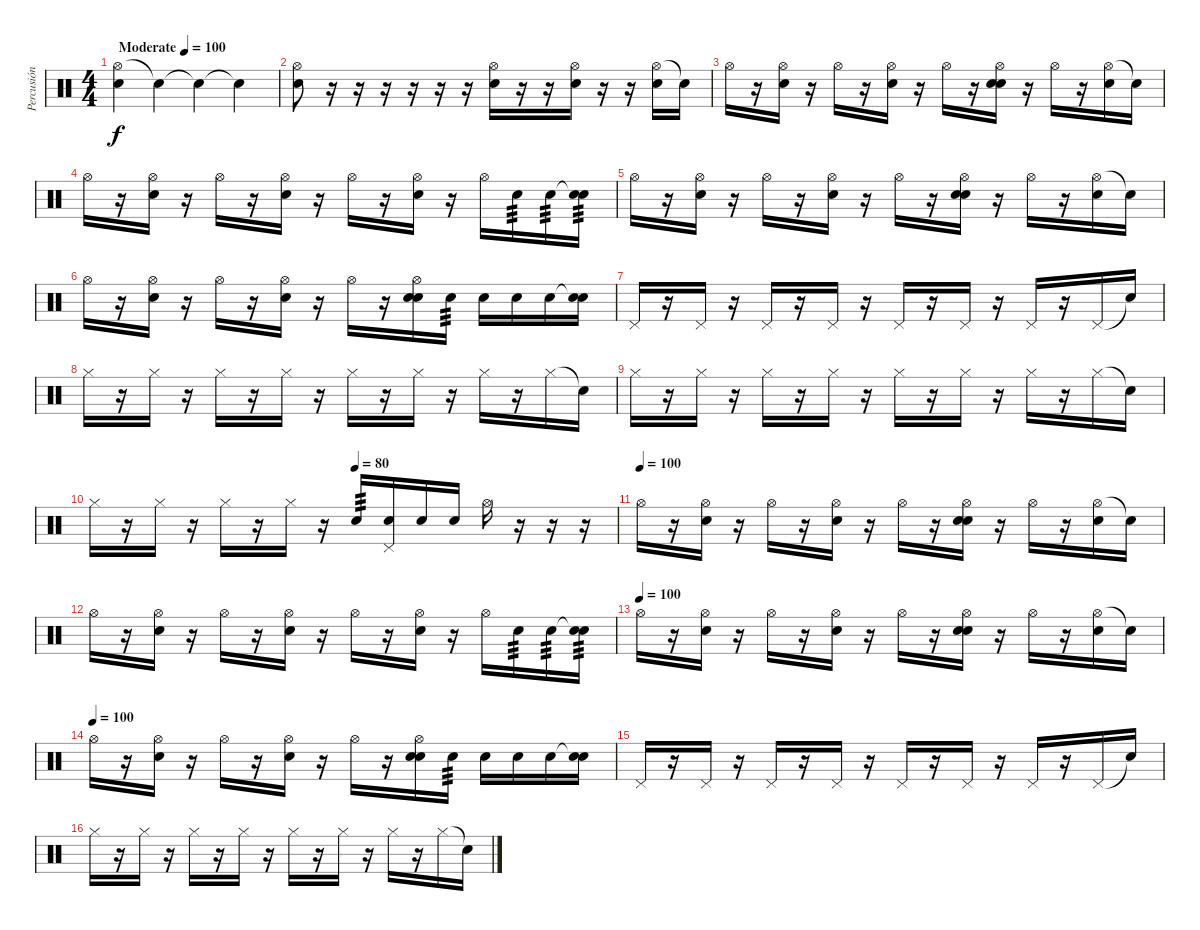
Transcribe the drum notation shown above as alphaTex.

\track ("Percusión" "Percusión") {instrument percussion}
\staff {score}
\articulation defaults
\ts (4 4)
\tempo (100 "Moderate")
\clef neutral
\ks c
("Hi-Hat (open)" "Electric Snare (hit)").4{dy f} "Snare (hit)"{t}.4 "Snare (hit)"{t}.4 "Snare (hit)"{t}.4 |
("Hi-Hat (open)" "Electric Snare (hit)").8 r.16 r.16 r.16 r.16 r.16 r.16 ("Hi-Hat (open)" "Electric Snare (hit)").16 r.16 r.16 ("Hi-Hat (open)" "Electric Snare (hit)").16 r.16 r.16 ("Hi-Hat (open)" "Electric Snare (hit)").16 "Snare (hit)"{t}.16 |
"Hi-Hat (open)".16 r.16 ("Hi-Hat (open)" "Electric Snare (hit)").16 r.16 "Hi-Hat (open)".16 r.16 ("Hi-Hat (open)" "Electric Snare (hit)").16 r.16 "Hi-Hat (open)".16 r.16 ("Hi-Hat (open)" "Electric Snare (hit)" "Electric Snare (hit)").16 r.16 "Hi-Hat (open)".16 r.16 ("Hi-Hat (open)" "Electric Snare (hit)").16 "Snare (hit)"{t}.16 |
"Hi-Hat (open)".16 r.16 ("Hi-Hat (open)" "Electric Snare (hit)").16 r.16 "Hi-Hat (open)".16 r.16 ("Hi-Hat (open)" "Electric Snare (hit)").16 r.16 "Hi-Hat (open)".16 r.16 ("Hi-Hat (open)" "Electric Snare (hit)").16 r.16 "Hi-Hat (open)".16 "Electric Snare (hit)".16{tp 3} "Electric Snare (hit)".16{tp 3} ("Snare (hit)"{t} "Electric Snare (hit)").16{tp 3} |
"Hi-Hat (open)".16 r.16 ("Hi-Hat (open)" "Electric Snare (hit)").16 r.16 "Hi-Hat (open)".16 r.16 ("Hi-Hat (open)" "Electric Snare (hit)").16 r.16 "Hi-Hat (open)".16 r.16 ("Hi-Hat (open)" "Electric Snare (hit)" "Electric Snare (hit)").16 r.16 "Hi-Hat (open)".16 r.16 ("Hi-Hat (open)" "Electric Snare (hit)").16 "Snare (hit)"{t}.16 |
"Hi-Hat (open)".16 r.16 ("Hi-Hat (open)" "Electric Snare (hit)").16 r.16 "Hi-Hat (open)".16 r.16 ("Hi-Hat (open)" "Electric Snare (hit)").16 r.16 "Hi-Hat (open)".16 r.16 ("Hi-Hat (open)" "Electric Snare (hit)" "Electric Snare (hit)").16 "Electric Snare (hit)".16{tp 3} "Snare (hit) 2".16 "Electric Snare (hit)".16 "Electric Snare (hit)".16 ("Snare (hit)"{t} "Electric Snare (hit)").16 |
"Pedal Hi-Hat (hit)".16 r.16 "Pedal Hi-Hat (hit)".16 r.16 "Pedal Hi-Hat (hit)".16 r.16 "Pedal Hi-Hat (hit)".16 r.16 "Pedal Hi-Hat (hit)".16 r.16 "Pedal Hi-Hat (hit)".16 r.16 "Pedal Hi-Hat (hit)".16 r.16 "Pedal Hi-Hat (hit)".16 "Snare (hit)"{t}.16 |
"Hi-Hat (closed)".16 r.16 "Hi-Hat (closed)".16 r.16 "Hi-Hat (closed)".16 r.16 "Hi-Hat (closed)".16 r.16 "Hi-Hat (closed)".16 r.16 "Hi-Hat (closed)".16 r.16 "Hi-Hat (closed)".16 r.16 "Hi-Hat (closed)".16 "Snare (hit)"{t}.16 |
"Hi-Hat (closed)".16 r.16 "Hi-Hat (closed)".16 r.16 "Hi-Hat (closed)".16 r.16 "Hi-Hat (closed)".16 r.16 "Hi-Hat (closed)".16 r.16 "Hi-Hat (closed)".16 r.16 "Hi-Hat (closed)".16 r.16 "Hi-Hat (closed)".16 "Snare (hit)"{t}.16 |
\tempo (80 0.5)
"Hi-Hat (closed)".16 r.16 "Hi-Hat (closed)".16 r.16 "Hi-Hat (closed)".16 r.16 "Hi-Hat (closed)".16 r.16 "Electric Snare (hit)".16{tp 3} ("Pedal Hi-Hat (hit)" "Snare (hit) 2").16 "Snare (hit) 2".16 "Snare (hit) 2".16 "Hi-Hat (open)".16 r.16 r.16 r.16 |
\tempo (100)
"Hi-Hat (open)".16 r.16 ("Hi-Hat (open)" "Electric Snare (hit)").16 r.16 "Hi-Hat (open)".16 r.16 ("Hi-Hat (open)" "Electric Snare (hit)").16 r.16 "Hi-Hat (open)".16 r.16 ("Hi-Hat (open)" "Electric Snare (hit)" "Electric Snare (hit)").16 r.16 "Hi-Hat (open)".16 r.16 ("Hi-Hat (open)" "Electric Snare (hit)").16 "Snare (hit)"{t}.16 |
"Hi-Hat (open)".16 r.16 ("Hi-Hat (open)" "Electric Snare (hit)").16 r.16 "Hi-Hat (open)".16 r.16 ("Hi-Hat (open)" "Electric Snare (hit)").16 r.16 "Hi-Hat (open)".16 r.16 ("Hi-Hat (open)" "Electric Snare (hit)").16 r.16 "Hi-Hat (open)".16 "Electric Snare (hit)".16{tp 3} "Electric Snare (hit)".16{tp 3} ("Snare (hit)"{t} "Electric Snare (hit)").16{tp 3} |
\tempo (100)
"Hi-Hat (open)".16 r.16 ("Hi-Hat (open)" "Electric Snare (hit)").16 r.16 "Hi-Hat (open)".16 r.16 ("Hi-Hat (open)" "Electric Snare (hit)").16 r.16 "Hi-Hat (open)".16 r.16 ("Hi-Hat (open)" "Electric Snare (hit)" "Electric Snare (hit)").16 r.16 "Hi-Hat (open)".16 r.16 ("Hi-Hat (open)" "Electric Snare (hit)").16 "Snare (hit)"{t}.16 |
\tempo (100)
"Hi-Hat (open)".16 r.16 ("Hi-Hat (open)" "Electric Snare (hit)").16 r.16 "Hi-Hat (open)".16 r.16 ("Hi-Hat (open)" "Electric Snare (hit)").16 r.16 "Hi-Hat (open)".16 r.16 ("Hi-Hat (open)" "Electric Snare (hit)" "Electric Snare (hit)").16 "Electric Snare (hit)".16{tp 3} "Snare (hit) 2".16 "Electric Snare (hit)".16 "Electric Snare (hit)".16 ("Snare (hit)"{t} "Electric Snare (hit)").16 |
"Pedal Hi-Hat (hit)".16 r.16 "Pedal Hi-Hat (hit)".16 r.16 "Pedal Hi-Hat (hit)".16 r.16 "Pedal Hi-Hat (hit)".16 r.16 "Pedal Hi-Hat (hit)".16 r.16 "Pedal Hi-Hat (hit)".16 r.16 "Pedal Hi-Hat (hit)".16 r.16 "Pedal Hi-Hat (hit)".16 "Snare (hit)"{t}.16 |
"Hi-Hat (closed)".16 r.16 "Hi-Hat (closed)".16 r.16 "Hi-Hat (closed)".16 r.16 "Hi-Hat (closed)".16 r.16 "Hi-Hat (closed)".16 r.16 "Hi-Hat (closed)".16 r.16 "Hi-Hat (closed)".16 r.16 "Hi-Hat (closed)".16 "Snare (hit)"{t}.16
